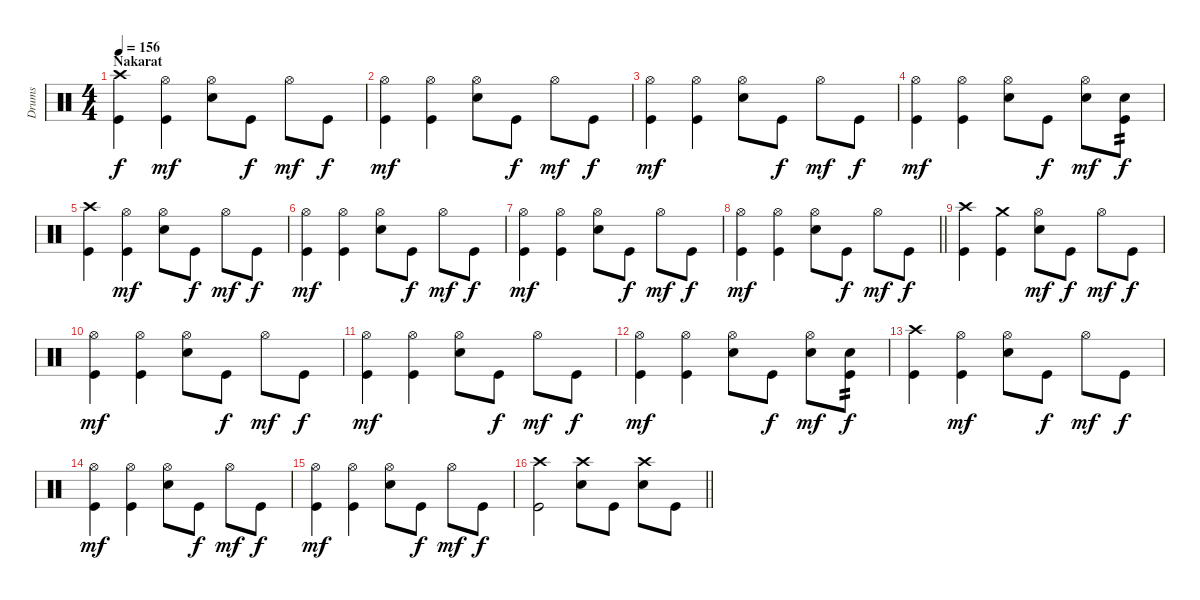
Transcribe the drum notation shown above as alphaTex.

\track ("Drums" "Drums") {instrument percussion}
\staff {score}
\articulation defaults
\ts (4 4)
\section ("" "Nakarat")
\tempo 156
\clef neutral
\ks c
("Kick (hit)" "Crash high (hit)").4{dy f} ("Kick (hit)" "Hi-Hat (open)").4{dy mf} ("Snare (hit) 2" "Hi-Hat (open)").8 "Kick (hit)".8{dy f} "Hi-Hat (open)".8{dy mf} "Kick (hit)".8{dy f} |
("Kick (hit)" "Hi-Hat (open)").4{dy mf} ("Kick (hit)" "Hi-Hat (open)").4 ("Snare (hit) 2" "Hi-Hat (open)").8 "Kick (hit)".8{dy f} "Hi-Hat (open)".8{dy mf} "Kick (hit)".8{dy f} |
("Kick (hit)" "Hi-Hat (open)").4{dy mf} ("Kick (hit)" "Hi-Hat (open)").4 ("Snare (hit) 2" "Hi-Hat (open)").8 "Kick (hit)".8{dy f} "Hi-Hat (open)".8{dy mf} "Kick (hit)".8{dy f} |
("Kick (hit)" "Hi-Hat (open)").4{dy mf} ("Kick (hit)" "Hi-Hat (open)").4 ("Snare (hit) 2" "Hi-Hat (open)").8 "Kick (hit)".8{dy f} ("Snare (hit) 2" "Hi-Hat (open)").8{dy mf} ("Kick (hit)" "Snare (hit) 2").8{tp 2 dy f} |
("Kick (hit)" "Crash high (hit)").4 ("Kick (hit)" "Hi-Hat (open)").4{dy mf} ("Snare (hit) 2" "Hi-Hat (open)").8 "Kick (hit)".8{dy f} "Hi-Hat (open)".8{dy mf} "Kick (hit)".8{dy f} |
("Kick (hit)" "Hi-Hat (open)").4{dy mf} ("Kick (hit)" "Hi-Hat (open)").4 ("Snare (hit) 2" "Hi-Hat (open)").8 "Kick (hit)".8{dy f} "Hi-Hat (open)".8{dy mf} "Kick (hit)".8{dy f} |
("Kick (hit)" "Hi-Hat (open)").4{dy mf} ("Kick (hit)" "Hi-Hat (open)").4 ("Snare (hit) 2" "Hi-Hat (open)").8 "Kick (hit)".8{dy f} "Hi-Hat (open)".8{dy mf} "Kick (hit)".8{dy f} |
\barLineRight lightlight
("Kick (hit)" "Hi-Hat (open)").4{dy mf} ("Kick (hit)" "Hi-Hat (open)").4 ("Snare (hit) 2" "Hi-Hat (open)").8 "Kick (hit)".8{dy f} "Hi-Hat (open)".8{dy mf} "Kick (hit)".8{dy f} |
("Kick (hit)" "Crash high (hit)").4 ("Kick (hit)" "Crash medium (hit)").4 ("Snare (hit) 2" "Hi-Hat (open)").8{dy mf} "Kick (hit)".8{dy f} "Hi-Hat (open)".8{dy mf} "Kick (hit)".8{dy f} |
("Kick (hit)" "Hi-Hat (open)").4{dy mf} ("Kick (hit)" "Hi-Hat (open)").4 ("Snare (hit) 2" "Hi-Hat (open)").8 "Kick (hit)".8{dy f} "Hi-Hat (open)".8{dy mf} "Kick (hit)".8{dy f} |
("Kick (hit)" "Hi-Hat (open)").4{dy mf} ("Kick (hit)" "Hi-Hat (open)").4 ("Snare (hit) 2" "Hi-Hat (open)").8 "Kick (hit)".8{dy f} "Hi-Hat (open)".8{dy mf} "Kick (hit)".8{dy f} |
("Kick (hit)" "Hi-Hat (open)").4{dy mf} ("Kick (hit)" "Hi-Hat (open)").4 ("Snare (hit) 2" "Hi-Hat (open)").8 "Kick (hit)".8{dy f} ("Snare (hit) 2" "Hi-Hat (open)").8{dy mf} ("Kick (hit)" "Snare (hit) 2").8{tp 2 dy f} |
("Kick (hit)" "Crash high (hit)").4 ("Kick (hit)" "Hi-Hat (open)").4{dy mf} ("Snare (hit) 2" "Hi-Hat (open)").8 "Kick (hit)".8{dy f} "Hi-Hat (open)".8{dy mf} "Kick (hit)".8{dy f} |
("Kick (hit)" "Hi-Hat (open)").4{dy mf} ("Kick (hit)" "Hi-Hat (open)").4 ("Snare (hit) 2" "Hi-Hat (open)").8 "Kick (hit)".8{dy f} "Hi-Hat (open)".8{dy mf} "Kick (hit)".8{dy f} |
("Kick (hit)" "Hi-Hat (open)").4{dy mf} ("Kick (hit)" "Hi-Hat (open)").4 ("Snare (hit) 2" "Hi-Hat (open)").8 "Kick (hit)".8{dy f} "Hi-Hat (open)".8{dy mf} "Kick (hit)".8{dy f} |
\barLineRight lightlight
("Kick (hit)" "Crash high (hit)").2 ("Snare (hit) 2" "Crash high (hit)").8 "Kick (hit)".8 ("Snare (hit) 2" "Crash high (hit)").8 "Kick (hit)".8
